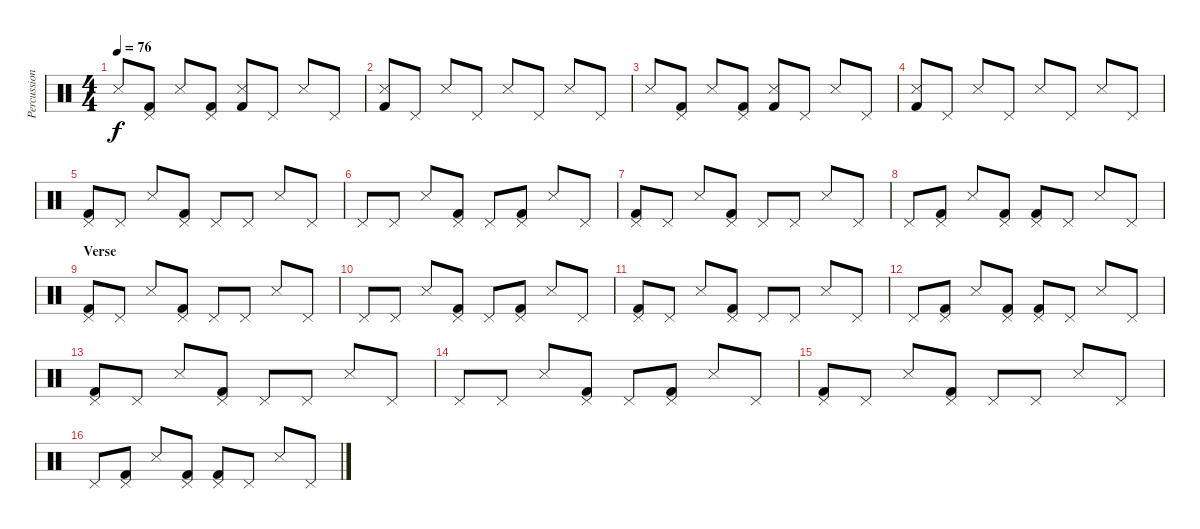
\track ("Percussions" "Percussion") {instrument percussion}
\staff {score}
\articulation defaults
\ts (4 4)
\tempo 76
\clef neutral
\ks c "Snare (side stick) 3".8{dy f}
("Pedal Hi-Hat (hit)" "Kick (hit) 2").8 "Snare (side stick) 3".8 ("Pedal Hi-Hat (hit)" "Kick (hit) 2").8 ("Snare (side stick) 3" "Kick (hit) 2").8 "Pedal Hi-Hat (hit)".8 "Snare (side stick) 3".8 "Pedal Hi-Hat (hit)".8 |
("Snare (side stick) 3" "Kick (hit) 2").8 "Pedal Hi-Hat (hit)".8 "Snare (side stick) 3".8 "Pedal Hi-Hat (hit)".8 "Snare (side stick) 3".8 "Pedal Hi-Hat (hit)".8 "Snare (side stick) 3".8 "Pedal Hi-Hat (hit)".8 |
"Snare (side stick) 3".8 ("Pedal Hi-Hat (hit)" "Kick (hit) 2").8 "Snare (side stick) 3".8 ("Pedal Hi-Hat (hit)" "Kick (hit) 2").8 ("Snare (side stick) 3" "Kick (hit) 2").8 "Pedal Hi-Hat (hit)".8 "Snare (side stick) 3".8 "Pedal Hi-Hat (hit)".8 |
("Snare (side stick) 3" "Kick (hit) 2").8 "Pedal Hi-Hat (hit)".8 "Snare (side stick) 3".8 "Pedal Hi-Hat (hit)".8 "Snare (side stick) 3".8 "Pedal Hi-Hat (hit)".8 "Snare (side stick) 3".8 "Pedal Hi-Hat (hit)".8 |
("Pedal Hi-Hat (hit)" "Kick (hit) 2").8 "Pedal Hi-Hat (hit)".8 "Snare (side stick) 3".8 ("Pedal Hi-Hat (hit)" "Kick (hit) 2").8 "Pedal Hi-Hat (hit)".8 "Pedal Hi-Hat (hit)".8 "Snare (side stick) 3".8 "Pedal Hi-Hat (hit)".8 |
"Pedal Hi-Hat (hit)".8 "Pedal Hi-Hat (hit)".8 "Snare (side stick) 3".8 ("Pedal Hi-Hat (hit)" "Kick (hit) 2").8 "Pedal Hi-Hat (hit)".8 ("Pedal Hi-Hat (hit)" "Kick (hit) 2").8 "Snare (side stick) 3".8 "Pedal Hi-Hat (hit)".8 |
("Pedal Hi-Hat (hit)" "Kick (hit) 2").8 "Pedal Hi-Hat (hit)".8 "Snare (side stick) 3".8 ("Pedal Hi-Hat (hit)" "Kick (hit) 2").8 "Pedal Hi-Hat (hit)".8 "Pedal Hi-Hat (hit)".8 "Snare (side stick) 3".8 "Pedal Hi-Hat (hit)".8 |
"Pedal Hi-Hat (hit)".8 ("Pedal Hi-Hat (hit)" "Kick (hit) 2").8 "Snare (side stick) 3".8 ("Pedal Hi-Hat (hit)" "Kick (hit) 2").8 ("Pedal Hi-Hat (hit)" "Kick (hit) 2").8 "Pedal Hi-Hat (hit)".8 "Snare (side stick) 3".8 "Pedal Hi-Hat (hit)".8 |
\section ("" "Verse")
("Pedal Hi-Hat (hit)" "Kick (hit) 2").8 "Pedal Hi-Hat (hit)".8 "Snare (side stick) 3".8 ("Pedal Hi-Hat (hit)" "Kick (hit) 2").8 "Pedal Hi-Hat (hit)".8 "Pedal Hi-Hat (hit)".8 "Snare (side stick) 3".8 "Pedal Hi-Hat (hit)".8 |
"Pedal Hi-Hat (hit)".8 "Pedal Hi-Hat (hit)".8 "Snare (side stick) 3".8 ("Pedal Hi-Hat (hit)" "Kick (hit) 2").8 "Pedal Hi-Hat (hit)".8 ("Pedal Hi-Hat (hit)" "Kick (hit) 2").8 "Snare (side stick) 3".8 "Pedal Hi-Hat (hit)".8 |
("Pedal Hi-Hat (hit)" "Kick (hit) 2").8 "Pedal Hi-Hat (hit)".8 "Snare (side stick) 3".8 ("Pedal Hi-Hat (hit)" "Kick (hit) 2").8 "Pedal Hi-Hat (hit)".8 "Pedal Hi-Hat (hit)".8 "Snare (side stick) 3".8 "Pedal Hi-Hat (hit)".8 |
"Pedal Hi-Hat (hit)".8 ("Pedal Hi-Hat (hit)" "Kick (hit) 2").8 "Snare (side stick) 3".8 ("Pedal Hi-Hat (hit)" "Kick (hit) 2").8 ("Pedal Hi-Hat (hit)" "Kick (hit) 2").8 "Pedal Hi-Hat (hit)".8 "Snare (side stick) 3".8 "Pedal Hi-Hat (hit)".8 |
("Pedal Hi-Hat (hit)" "Kick (hit) 2").8 "Pedal Hi-Hat (hit)".8 "Snare (side stick) 3".8 ("Pedal Hi-Hat (hit)" "Kick (hit) 2").8 "Pedal Hi-Hat (hit)".8 "Pedal Hi-Hat (hit)".8 "Snare (side stick) 3".8 "Pedal Hi-Hat (hit)".8 |
"Pedal Hi-Hat (hit)".8 "Pedal Hi-Hat (hit)".8 "Snare (side stick) 3".8 ("Pedal Hi-Hat (hit)" "Kick (hit) 2").8 "Pedal Hi-Hat (hit)".8 ("Pedal Hi-Hat (hit)" "Kick (hit) 2").8 "Snare (side stick) 3".8 "Pedal Hi-Hat (hit)".8 |
("Pedal Hi-Hat (hit)" "Kick (hit) 2").8 "Pedal Hi-Hat (hit)".8 "Snare (side stick) 3".8 ("Pedal Hi-Hat (hit)" "Kick (hit) 2").8 "Pedal Hi-Hat (hit)".8 "Pedal Hi-Hat (hit)".8 "Snare (side stick) 3".8 "Pedal Hi-Hat (hit)".8 |
"Pedal Hi-Hat (hit)".8 ("Pedal Hi-Hat (hit)" "Kick (hit) 2").8 "Snare (side stick) 3".8 ("Pedal Hi-Hat (hit)" "Kick (hit) 2").8 ("Pedal Hi-Hat (hit)" "Kick (hit) 2").8 "Pedal Hi-Hat (hit)".8 "Snare (side stick) 3".8 "Pedal Hi-Hat (hit)".8
